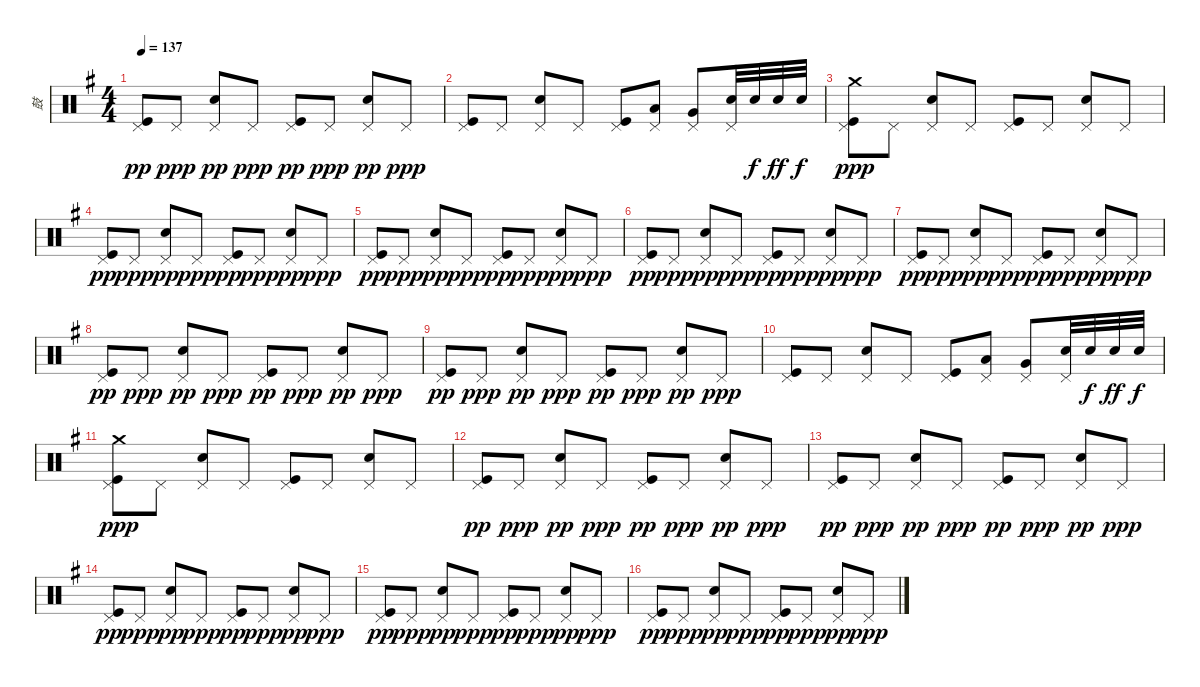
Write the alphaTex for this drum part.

\track ("鼓" "鼓") {instrument percussion}
\staff {score}
\articulation defaults
\ts (4 4)
\tempo 137
\clef neutral
\ks g
("Kick (hit)" "Pedal Hi-Hat (hit)").8{dy pp} "Pedal Hi-Hat (hit)".8{dy ppp} ("Snare (hit) 2" "Pedal Hi-Hat (hit)").8{dy pp} "Pedal Hi-Hat (hit)".8{dy ppp} ("Kick (hit)" "Pedal Hi-Hat (hit)").8{dy pp} "Pedal Hi-Hat (hit)".8{dy ppp} ("Snare (hit) 2" "Pedal Hi-Hat (hit)").8{dy pp} "Pedal Hi-Hat (hit)".8{dy ppp} |
("Kick (hit)" "Pedal Hi-Hat (hit)").8 "Pedal Hi-Hat (hit)".8 ("Snare (hit) 2" "Pedal Hi-Hat (hit)").8 "Pedal Hi-Hat (hit)".8 ("Kick (hit)" "Pedal Hi-Hat (hit)").8 ("Low Tom (hit)" "Pedal Hi-Hat (hit)").8 ("Very Low Tom (hit)" "Pedal Hi-Hat (hit)").8 ("Snare (hit) 2" "Pedal Hi-Hat (hit)").32 "Snare (hit) 2".32{dy f} "Snare (hit) 2".32{dy ff} "Snare (hit) 2".32{dy f} |
("Crash medium (hit)" "Kick (hit)" "Pedal Hi-Hat (hit)").8{dy ppp} "Pedal Hi-Hat (hit)".8 ("Snare (hit) 2" "Pedal Hi-Hat (hit)").8 "Pedal Hi-Hat (hit)".8 ("Kick (hit)" "Pedal Hi-Hat (hit)").8 "Pedal Hi-Hat (hit)".8 ("Snare (hit) 2" "Pedal Hi-Hat (hit)").8 "Pedal Hi-Hat (hit)".8 |
("Kick (hit)" "Pedal Hi-Hat (hit)").8{dy pp} "Pedal Hi-Hat (hit)".8{dy ppp} ("Snare (hit) 2" "Pedal Hi-Hat (hit)").8{dy pp} "Pedal Hi-Hat (hit)".8{dy ppp} ("Kick (hit)" "Pedal Hi-Hat (hit)").8{dy pp} "Pedal Hi-Hat (hit)".8{dy ppp} ("Snare (hit) 2" "Pedal Hi-Hat (hit)").8{dy pp} "Pedal Hi-Hat (hit)".8{dy ppp} |
("Kick (hit)" "Pedal Hi-Hat (hit)").8{dy pp} "Pedal Hi-Hat (hit)".8{dy ppp} ("Snare (hit) 2" "Pedal Hi-Hat (hit)").8{dy pp} "Pedal Hi-Hat (hit)".8{dy ppp} ("Kick (hit)" "Pedal Hi-Hat (hit)").8{dy pp} "Pedal Hi-Hat (hit)".8{dy ppp} ("Snare (hit) 2" "Pedal Hi-Hat (hit)").8{dy pp} "Pedal Hi-Hat (hit)".8{dy ppp} |
("Kick (hit)" "Pedal Hi-Hat (hit)").8{dy pp} "Pedal Hi-Hat (hit)".8{dy ppp} ("Snare (hit) 2" "Pedal Hi-Hat (hit)").8{dy pp} "Pedal Hi-Hat (hit)".8{dy ppp} ("Kick (hit)" "Pedal Hi-Hat (hit)").8{dy pp} "Pedal Hi-Hat (hit)".8{dy ppp} ("Snare (hit) 2" "Pedal Hi-Hat (hit)").8{dy pp} "Pedal Hi-Hat (hit)".8{dy ppp} |
("Kick (hit)" "Pedal Hi-Hat (hit)").8{dy pp} "Pedal Hi-Hat (hit)".8{dy ppp} ("Snare (hit) 2" "Pedal Hi-Hat (hit)").8{dy pp} "Pedal Hi-Hat (hit)".8{dy ppp} ("Kick (hit)" "Pedal Hi-Hat (hit)").8{dy pp} "Pedal Hi-Hat (hit)".8{dy ppp} ("Snare (hit) 2" "Pedal Hi-Hat (hit)").8{dy pp} "Pedal Hi-Hat (hit)".8{dy ppp} |
("Kick (hit)" "Pedal Hi-Hat (hit)").8{dy pp} "Pedal Hi-Hat (hit)".8{dy ppp} ("Snare (hit) 2" "Pedal Hi-Hat (hit)").8{dy pp} "Pedal Hi-Hat (hit)".8{dy ppp} ("Kick (hit)" "Pedal Hi-Hat (hit)").8{dy pp} "Pedal Hi-Hat (hit)".8{dy ppp} ("Snare (hit) 2" "Pedal Hi-Hat (hit)").8{dy pp} "Pedal Hi-Hat (hit)".8{dy ppp} |
("Kick (hit)" "Pedal Hi-Hat (hit)").8{dy pp} "Pedal Hi-Hat (hit)".8{dy ppp} ("Snare (hit) 2" "Pedal Hi-Hat (hit)").8{dy pp} "Pedal Hi-Hat (hit)".8{dy ppp} ("Kick (hit)" "Pedal Hi-Hat (hit)").8{dy pp} "Pedal Hi-Hat (hit)".8{dy ppp} ("Snare (hit) 2" "Pedal Hi-Hat (hit)").8{dy pp} "Pedal Hi-Hat (hit)".8{dy ppp} |
("Kick (hit)" "Pedal Hi-Hat (hit)").8 "Pedal Hi-Hat (hit)".8 ("Snare (hit) 2" "Pedal Hi-Hat (hit)").8 "Pedal Hi-Hat (hit)".8 ("Kick (hit)" "Pedal Hi-Hat (hit)").8 ("Low Tom (hit)" "Pedal Hi-Hat (hit)").8 ("Very Low Tom (hit)" "Pedal Hi-Hat (hit)").8 ("Snare (hit) 2" "Pedal Hi-Hat (hit)").32 "Snare (hit) 2".32{dy f} "Snare (hit) 2".32{dy ff} "Snare (hit) 2".32{dy f} |
("Crash medium (hit)" "Kick (hit)" "Pedal Hi-Hat (hit)").8{dy ppp} "Pedal Hi-Hat (hit)".8 ("Snare (hit) 2" "Pedal Hi-Hat (hit)").8 "Pedal Hi-Hat (hit)".8 ("Kick (hit)" "Pedal Hi-Hat (hit)").8 "Pedal Hi-Hat (hit)".8 ("Snare (hit) 2" "Pedal Hi-Hat (hit)").8 "Pedal Hi-Hat (hit)".8 |
("Kick (hit)" "Pedal Hi-Hat (hit)").8{dy pp} "Pedal Hi-Hat (hit)".8{dy ppp} ("Snare (hit) 2" "Pedal Hi-Hat (hit)").8{dy pp} "Pedal Hi-Hat (hit)".8{dy ppp} ("Kick (hit)" "Pedal Hi-Hat (hit)").8{dy pp} "Pedal Hi-Hat (hit)".8{dy ppp} ("Snare (hit) 2" "Pedal Hi-Hat (hit)").8{dy pp} "Pedal Hi-Hat (hit)".8{dy ppp} |
("Kick (hit)" "Pedal Hi-Hat (hit)").8{dy pp} "Pedal Hi-Hat (hit)".8{dy ppp} ("Snare (hit) 2" "Pedal Hi-Hat (hit)").8{dy pp} "Pedal Hi-Hat (hit)".8{dy ppp} ("Kick (hit)" "Pedal Hi-Hat (hit)").8{dy pp} "Pedal Hi-Hat (hit)".8{dy ppp} ("Snare (hit) 2" "Pedal Hi-Hat (hit)").8{dy pp} "Pedal Hi-Hat (hit)".8{dy ppp} |
("Kick (hit)" "Pedal Hi-Hat (hit)").8{dy pp} "Pedal Hi-Hat (hit)".8{dy ppp} ("Snare (hit) 2" "Pedal Hi-Hat (hit)").8{dy pp} "Pedal Hi-Hat (hit)".8{dy ppp} ("Kick (hit)" "Pedal Hi-Hat (hit)").8{dy pp} "Pedal Hi-Hat (hit)".8{dy ppp} ("Snare (hit) 2" "Pedal Hi-Hat (hit)").8{dy pp} "Pedal Hi-Hat (hit)".8{dy ppp} |
("Kick (hit)" "Pedal Hi-Hat (hit)").8{dy pp} "Pedal Hi-Hat (hit)".8{dy ppp} ("Snare (hit) 2" "Pedal Hi-Hat (hit)").8{dy pp} "Pedal Hi-Hat (hit)".8{dy ppp} ("Kick (hit)" "Pedal Hi-Hat (hit)").8{dy pp} "Pedal Hi-Hat (hit)".8{dy ppp} ("Snare (hit) 2" "Pedal Hi-Hat (hit)").8{dy pp} "Pedal Hi-Hat (hit)".8{dy ppp} |
("Kick (hit)" "Pedal Hi-Hat (hit)").8{dy pp} "Pedal Hi-Hat (hit)".8{dy ppp} ("Snare (hit) 2" "Pedal Hi-Hat (hit)").8{dy pp} "Pedal Hi-Hat (hit)".8{dy ppp} ("Kick (hit)" "Pedal Hi-Hat (hit)").8{dy pp} "Pedal Hi-Hat (hit)".8{dy ppp} ("Snare (hit) 2" "Pedal Hi-Hat (hit)").8{dy pp} "Pedal Hi-Hat (hit)".8{dy ppp}
